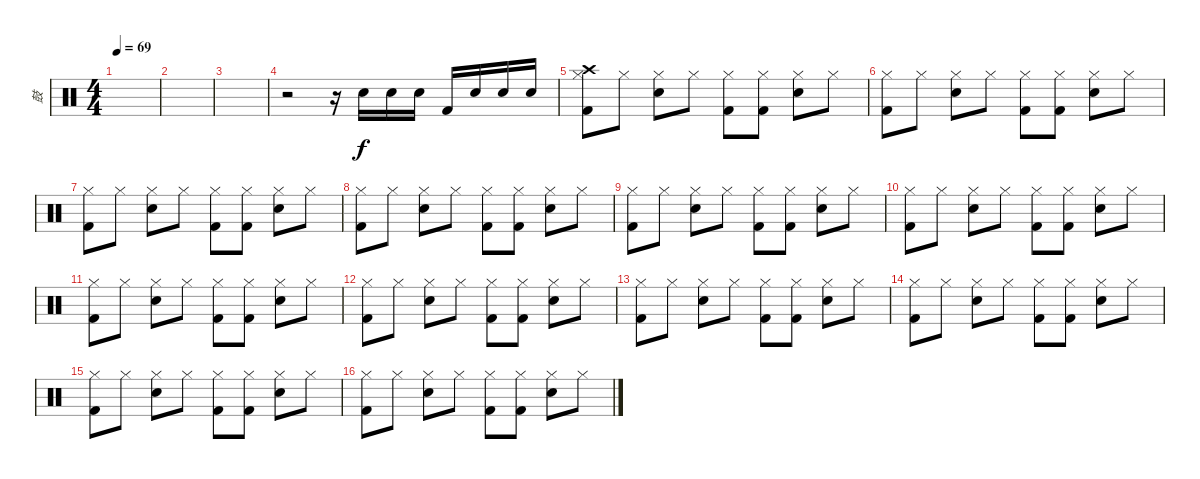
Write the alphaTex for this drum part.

\track ("鼓" "鼓") {instrument percussion}
\staff {score}
\articulation defaults
\ts (4 4)
\tempo 69
\clef neutral
\ks c
|
|
|
r.2 r.16 "Snare (hit) 2".16 "Snare (hit) 2".16 "Snare (hit) 2".16 "Kick (hit) 2".16 "Snare (hit) 2".16 "Snare (hit) 2".16 "Snare (hit) 2".16 |
("Crash high (hit)" "Hi-Hat (closed)" "Kick (hit) 2").8 "Hi-Hat (closed)".8 ("Hi-Hat (closed)" "Snare (hit) 2").8 "Hi-Hat (closed)".8 ("Hi-Hat (closed)" "Kick (hit) 2").8 ("Hi-Hat (closed)" "Kick (hit) 2").8 ("Hi-Hat (closed)" "Snare (hit) 2").8 "Hi-Hat (closed)".8 |
("Hi-Hat (closed)" "Kick (hit) 2").8 "Hi-Hat (closed)".8 ("Hi-Hat (closed)" "Snare (hit) 2").8 "Hi-Hat (closed)".8 ("Hi-Hat (closed)" "Kick (hit) 2").8 ("Hi-Hat (closed)" "Kick (hit) 2").8 ("Hi-Hat (closed)" "Snare (hit) 2").8 "Hi-Hat (closed)".8 |
("Hi-Hat (closed)" "Kick (hit) 2").8 "Hi-Hat (closed)".8 ("Hi-Hat (closed)" "Snare (hit) 2").8 "Hi-Hat (closed)".8 ("Hi-Hat (closed)" "Kick (hit) 2").8 ("Hi-Hat (closed)" "Kick (hit) 2").8 ("Hi-Hat (closed)" "Snare (hit) 2").8 "Hi-Hat (closed)".8 |
("Hi-Hat (closed)" "Kick (hit) 2").8 "Hi-Hat (closed)".8 ("Hi-Hat (closed)" "Snare (hit) 2").8 "Hi-Hat (closed)".8 ("Hi-Hat (closed)" "Kick (hit) 2").8 ("Hi-Hat (closed)" "Kick (hit) 2").8 ("Hi-Hat (closed)" "Snare (hit) 2").8 "Hi-Hat (closed)".8 |
("Hi-Hat (closed)" "Kick (hit) 2").8 "Hi-Hat (closed)".8 ("Hi-Hat (closed)" "Snare (hit) 2").8 "Hi-Hat (closed)".8 ("Hi-Hat (closed)" "Kick (hit) 2").8 ("Hi-Hat (closed)" "Kick (hit) 2").8 ("Hi-Hat (closed)" "Snare (hit) 2").8 "Hi-Hat (closed)".8 |
("Hi-Hat (closed)" "Kick (hit) 2").8 "Hi-Hat (closed)".8 ("Hi-Hat (closed)" "Snare (hit) 2").8 "Hi-Hat (closed)".8 ("Hi-Hat (closed)" "Kick (hit) 2").8 ("Hi-Hat (closed)" "Kick (hit) 2").8 ("Hi-Hat (closed)" "Snare (hit) 2").8 "Hi-Hat (closed)".8 |
("Hi-Hat (closed)" "Kick (hit) 2").8 "Hi-Hat (closed)".8 ("Hi-Hat (closed)" "Snare (hit) 2").8 "Hi-Hat (closed)".8 ("Hi-Hat (closed)" "Kick (hit) 2").8 ("Hi-Hat (closed)" "Kick (hit) 2").8 ("Hi-Hat (closed)" "Snare (hit) 2").8 "Hi-Hat (closed)".8 |
("Hi-Hat (closed)" "Kick (hit) 2").8 "Hi-Hat (closed)".8 ("Hi-Hat (closed)" "Snare (hit) 2").8 "Hi-Hat (closed)".8 ("Hi-Hat (closed)" "Kick (hit) 2").8 ("Hi-Hat (closed)" "Kick (hit) 2").8 ("Hi-Hat (closed)" "Snare (hit) 2").8 "Hi-Hat (closed)".8 |
("Hi-Hat (closed)" "Kick (hit) 2").8 "Hi-Hat (closed)".8 ("Hi-Hat (closed)" "Snare (hit) 2").8 "Hi-Hat (closed)".8 ("Hi-Hat (closed)" "Kick (hit) 2").8 ("Hi-Hat (closed)" "Kick (hit) 2").8 ("Hi-Hat (closed)" "Snare (hit) 2").8 "Hi-Hat (closed)".8 |
("Hi-Hat (closed)" "Kick (hit) 2").8 "Hi-Hat (closed)".8 ("Hi-Hat (closed)" "Snare (hit) 2").8 "Hi-Hat (closed)".8 ("Hi-Hat (closed)" "Kick (hit) 2").8 ("Hi-Hat (closed)" "Kick (hit) 2").8 ("Hi-Hat (closed)" "Snare (hit) 2").8 "Hi-Hat (closed)".8 |
("Hi-Hat (closed)" "Kick (hit) 2").8 "Hi-Hat (closed)".8 ("Hi-Hat (closed)" "Snare (hit) 2").8 "Hi-Hat (closed)".8 ("Hi-Hat (closed)" "Kick (hit) 2").8 ("Hi-Hat (closed)" "Kick (hit) 2").8 ("Hi-Hat (closed)" "Snare (hit) 2").8 "Hi-Hat (closed)".8 |
("Hi-Hat (closed)" "Kick (hit) 2").8 "Hi-Hat (closed)".8 ("Hi-Hat (closed)" "Snare (hit) 2").8 "Hi-Hat (closed)".8 ("Hi-Hat (closed)" "Kick (hit) 2").8 ("Hi-Hat (closed)" "Kick (hit) 2").8 ("Hi-Hat (closed)" "Snare (hit) 2").8 "Hi-Hat (closed)".8
